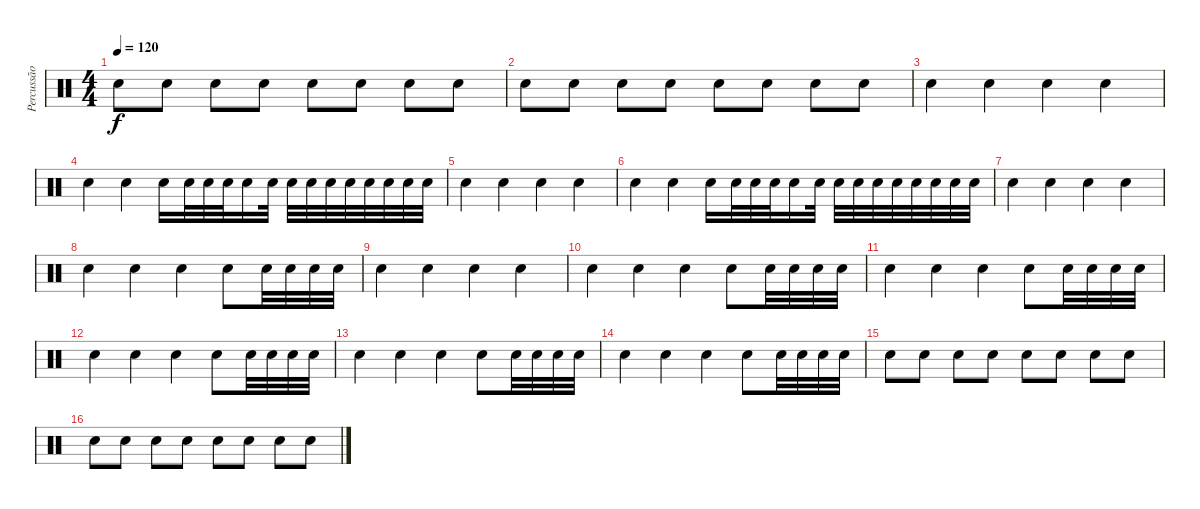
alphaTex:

\track ("Percussão" "Percussão") {instrument percussion}
\staff {score}
\articulation defaults
\ts (4 4)
\tempo 120
\clef neutral
\ks c "Electric Snare (hit)".8{dy f} "Electric Snare (hit)".8 "Electric Snare (hit)".8 "Electric Snare (hit)".8 "Electric Snare (hit)".8 "Electric Snare (hit)".8 "Electric Snare (hit)".8 "Electric Snare (hit)".8
|
"Electric Snare (hit)".8 "Electric Snare (hit)".8 "Electric Snare (hit)".8 "Electric Snare (hit)".8 "Electric Snare (hit)".8 "Electric Snare (hit)".8 "Electric Snare (hit)".8 "Electric Snare (hit)".8 |
"Electric Snare (hit)".4 "Electric Snare (hit)".4 "Electric Snare (hit)".4 "Electric Snare (hit)".4 |
"Electric Snare (hit)".4 "Electric Snare (hit)".4 "Electric Snare (hit)".16 "Electric Snare (hit)".32 "Electric Snare (hit)".32 "Electric Snare (hit)".32 "Electric Snare (hit)".16 "Electric Snare (hit)".32 "Electric Snare (hit)".32 "Electric Snare (hit)".32 "Electric Snare (hit)".32 "Electric Snare (hit)".32 "Electric Snare (hit)".32 "Electric Snare (hit)".32 "Electric Snare (hit)".32 "Electric Snare (hit)".32 |
"Electric Snare (hit)".4 "Electric Snare (hit)".4 "Electric Snare (hit)".4 "Electric Snare (hit)".4 |
"Electric Snare (hit)".4 "Electric Snare (hit)".4 "Electric Snare (hit)".16 "Electric Snare (hit)".32 "Electric Snare (hit)".32 "Electric Snare (hit)".32 "Electric Snare (hit)".16 "Electric Snare (hit)".32 "Electric Snare (hit)".32 "Electric Snare (hit)".32 "Electric Snare (hit)".32 "Electric Snare (hit)".32 "Electric Snare (hit)".32 "Electric Snare (hit)".32 "Electric Snare (hit)".32 "Electric Snare (hit)".32 |
"Electric Snare (hit)".4 "Electric Snare (hit)".4 "Electric Snare (hit)".4 "Electric Snare (hit)".4 |
"Electric Snare (hit)".4 "Electric Snare (hit)".4 "Electric Snare (hit)".4 "Electric Snare (hit)".8 "Electric Snare (hit)".32 "Electric Snare (hit)".32 "Electric Snare (hit)".32 "Electric Snare (hit)".32 |
"Electric Snare (hit)".4 "Electric Snare (hit)".4 "Electric Snare (hit)".4 "Electric Snare (hit)".4 |
"Electric Snare (hit)".4 "Electric Snare (hit)".4 "Electric Snare (hit)".4 "Electric Snare (hit)".8 "Electric Snare (hit)".32 "Electric Snare (hit)".32 "Electric Snare (hit)".32 "Electric Snare (hit)".32 |
"Electric Snare (hit)".4 "Electric Snare (hit)".4 "Electric Snare (hit)".4 "Electric Snare (hit)".8 "Electric Snare (hit)".32 "Electric Snare (hit)".32 "Electric Snare (hit)".32 "Electric Snare (hit)".32 |
"Electric Snare (hit)".4 "Electric Snare (hit)".4 "Electric Snare (hit)".4 "Electric Snare (hit)".8 "Electric Snare (hit)".32 "Electric Snare (hit)".32 "Electric Snare (hit)".32 "Electric Snare (hit)".32 |
"Electric Snare (hit)".4 "Electric Snare (hit)".4 "Electric Snare (hit)".4 "Electric Snare (hit)".8 "Electric Snare (hit)".32 "Electric Snare (hit)".32 "Electric Snare (hit)".32 "Electric Snare (hit)".32 |
"Electric Snare (hit)".4 "Electric Snare (hit)".4 "Electric Snare (hit)".4 "Electric Snare (hit)".8 "Electric Snare (hit)".32 "Electric Snare (hit)".32 "Electric Snare (hit)".32 "Electric Snare (hit)".32 |
"Electric Snare (hit)".8 "Electric Snare (hit)".8 "Electric Snare (hit)".8 "Electric Snare (hit)".8 "Electric Snare (hit)".8 "Electric Snare (hit)".8 "Electric Snare (hit)".8 "Electric Snare (hit)".8 |
"Electric Snare (hit)".8 "Electric Snare (hit)".8 "Electric Snare (hit)".8 "Electric Snare (hit)".8 "Electric Snare (hit)".8 "Electric Snare (hit)".8 "Electric Snare (hit)".8 "Electric Snare (hit)".8
